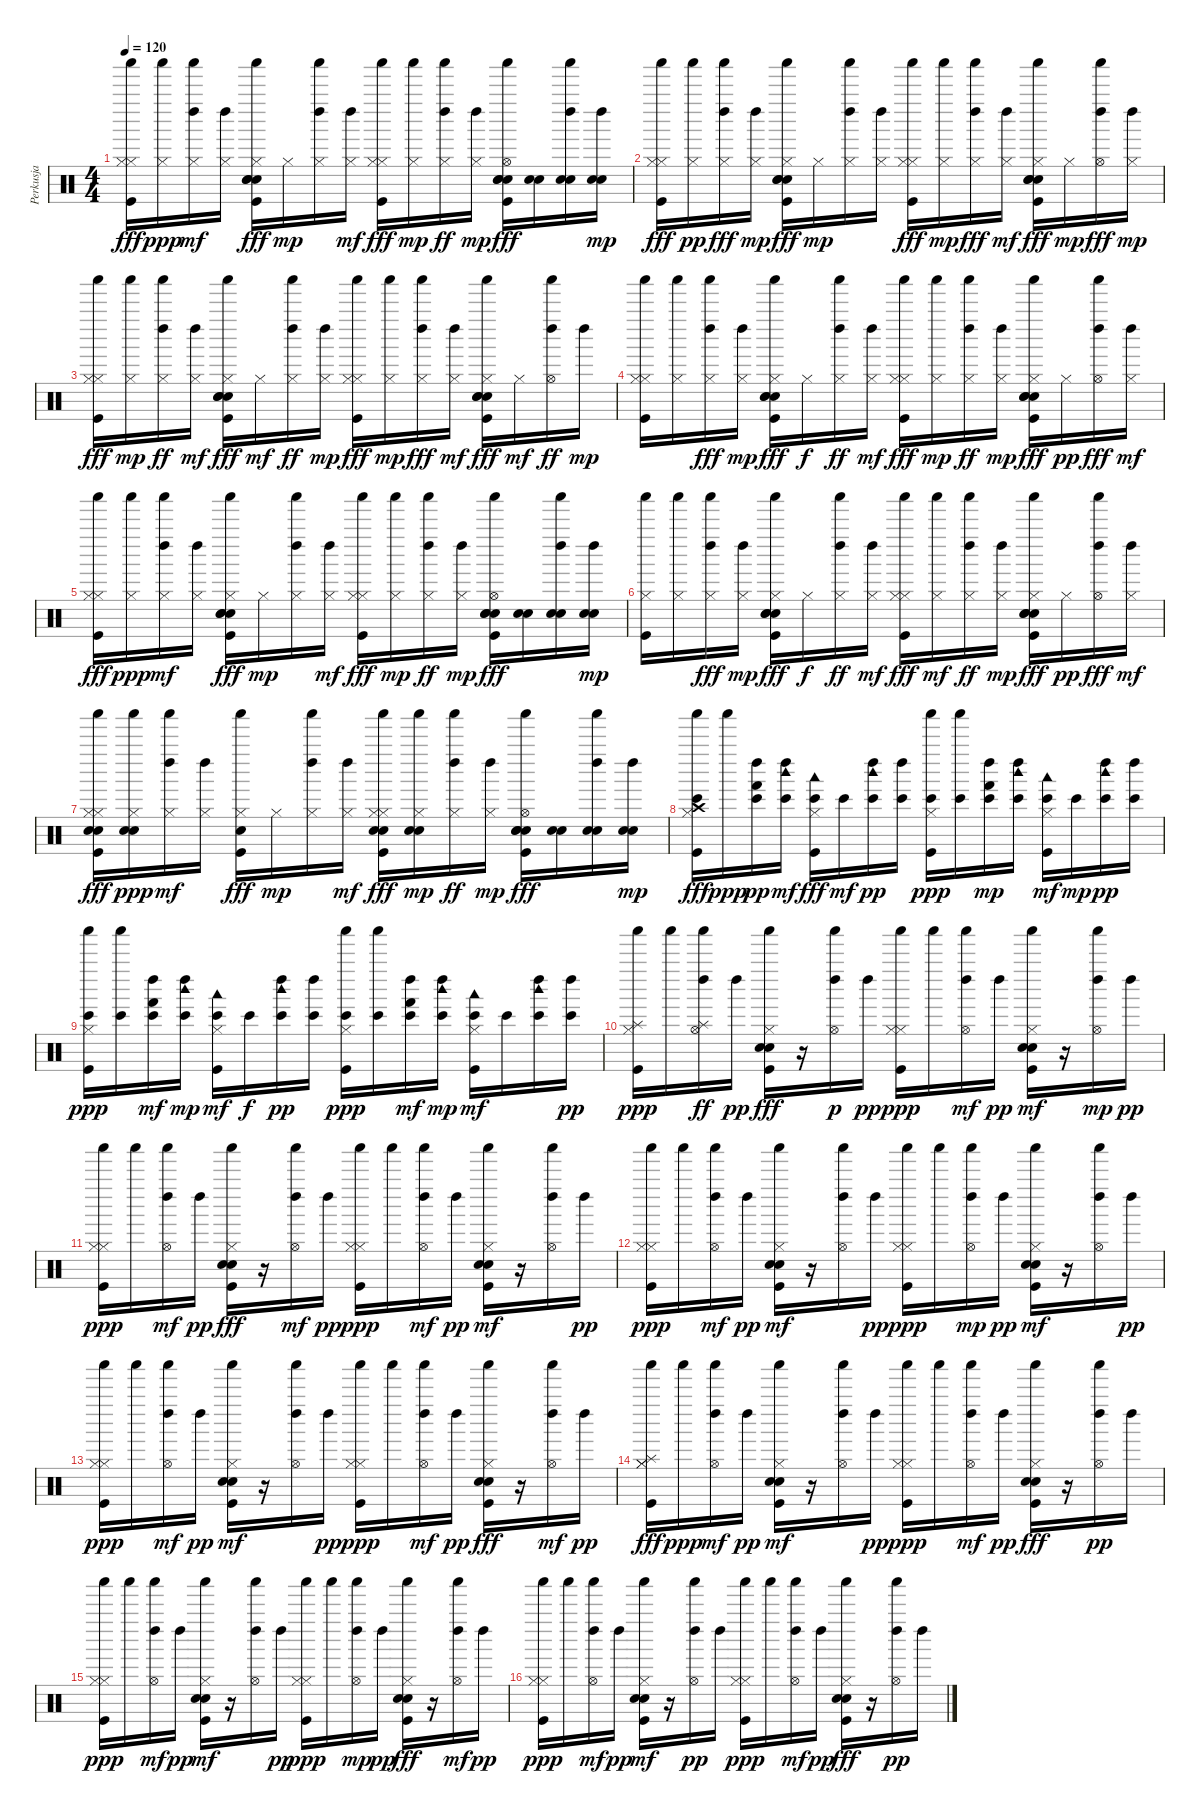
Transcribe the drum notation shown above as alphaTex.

\track ("Perkusja" "Perkusja") {instrument percussion}
\staff {score}
\articulation defaults
\ts (4 4)
\tempo 120
\clef neutral
\ks c
("Hi-Hat (closed)" "Kick (hit)" "Shaker (hit)" "Hi-Hat (closed)").16{dy fff} ("Shaker (hit)" "Hi-Hat (closed)").16{dy ppp} ("Left Maraca (hit)" "Shaker (hit)" "Hi-Hat (closed)").16{dy mf} ("Left Maraca (hit)" "Hi-Hat (closed)").16 ("Kick (hit)" "Snare (hit) 2" "Hand Clap (hit)" "Electric Snare (hit)" "Shaker (hit)" "Hi-Hat (closed)").16{dy fff} "Hi-Hat (closed)".16{dy mp} ("Left Maraca (hit)" "Shaker (hit)" "Hi-Hat (closed)").16 ("Left Maraca (hit)" "Hi-Hat (closed)").16{dy mf} ("Hi-Hat (closed)" "Kick (hit)" "Shaker (hit)" "Hi-Hat (closed)").16{dy fff} ("Hi-Hat (closed)" "Shaker (hit)").16{dy mp} ("Left Maraca (hit)" "Shaker (hit)" "Hi-Hat (closed)").16{dy ff} ("Hi-Hat (closed)" "Left Maraca (hit)").16{dy mp} ("Kick (hit)" "Snare (hit) 2" "Electric Snare (hit)" "Shaker (hit)" "Hand Clap (hit)" "Hi-Hat (open)").16{dy fff} ("Snare (hit) 2" "Electric Snare (hit)").16 ("Snare (hit) 2" "Electric Snare (hit)" "Left Maraca (hit)" "Shaker (hit)").16 ("Snare (hit) 2" "Electric Snare (hit)" "Left Maraca (hit)").16{dy mp} |
("Hi-Hat (closed)" "Kick (hit)" "Shaker (hit)" "Hi-Hat (closed)").16{dy fff} ("Shaker (hit)" "Hi-Hat (closed)").16{dy pp} ("Hi-Hat (closed)" "Left Maraca (hit)" "Shaker (hit)").16{dy fff} ("Hi-Hat (closed)" "Left Maraca (hit)").16{dy mp} ("Hi-Hat (closed)" "Kick (hit)" "Snare (hit) 2" "Electric Snare (hit)" "Shaker (hit)" "Hand Clap (hit)").16{dy fff} "Hi-Hat (closed)".16{dy mp} ("Hi-Hat (closed)" "Left Maraca (hit)" "Shaker (hit)").16 ("Left Maraca (hit)" "Hi-Hat (closed)").16 ("Hi-Hat (closed)" "Kick (hit)" "Shaker (hit)" "Hi-Hat (closed)").16{dy fff} ("Shaker (hit)" "Hi-Hat (closed)").16{dy mp} ("Left Maraca (hit)" "Shaker (hit)" "Hi-Hat (closed)").16{dy fff} ("Left Maraca (hit)" "Hi-Hat (closed)").16{dy mf} ("Kick (hit)" "Snare (hit) 2" "Hand Clap (hit)" "Electric Snare (hit)" "Shaker (hit)" "Hi-Hat (closed)").16{dy fff} "Hi-Hat (closed)".16{dy mp} ("Left Maraca (hit)" "Shaker (hit)" "Hi-Hat (open)").16{dy fff} ("Left Maraca (hit)" "Hi-Hat (closed)").16{dy mp} |
("Hi-Hat (closed)" "Kick (hit)" "Shaker (hit)" "Hi-Hat (closed)").16{dy fff} ("Shaker (hit)" "Hi-Hat (closed)").16{dy mp} ("Hi-Hat (closed)" "Left Maraca (hit)" "Shaker (hit)").16{dy ff} ("Left Maraca (hit)" "Hi-Hat (closed)").16{dy mf} ("Kick (hit)" "Snare (hit) 2" "Electric Snare (hit)" "Shaker (hit)" "Hand Clap (hit)" "Hi-Hat (closed)").16{dy fff} "Hi-Hat (closed)".16{dy mf} ("Hi-Hat (closed)" "Left Maraca (hit)" "Shaker (hit)").16{dy ff} ("Hi-Hat (closed)" "Left Maraca (hit)").16{dy mp} ("Hi-Hat (closed)" "Kick (hit)" "Shaker (hit)" "Hi-Hat (closed)").16{dy fff} ("Hi-Hat (closed)" "Shaker (hit)").16{dy mp} ("Hi-Hat (closed)" "Left Maraca (hit)" "Shaker (hit)").16{dy fff} ("Left Maraca (hit)" "Hi-Hat (closed)").16{dy mf} ("Kick (hit)" "Snare (hit) 2" "Hand Clap (hit)" "Electric Snare (hit)" "Hi-Hat (closed)" "Shaker (hit)").16{dy fff} "Hi-Hat (closed)".16{dy mf} ("Hi-Hat (open)" "Left Maraca (hit)" "Shaker (hit)").16{dy ff} "Left Maraca (hit)".16{dy mp} |
("Hi-Hat (closed)" "Hi-Hat (closed)" "Kick (hit)" "Shaker (hit)").16 ("Hi-Hat (closed)" "Shaker (hit)").16 ("Left Maraca (hit)" "Shaker (hit)" "Hi-Hat (closed)").16{dy fff} ("Hi-Hat (closed)" "Left Maraca (hit)").16{dy mp} ("Snare (hit) 2" "Electric Snare (hit)" "Kick (hit)" "Hand Clap (hit)" "Shaker (hit)" "Hi-Hat (closed)").16{dy fff} "Hi-Hat (closed)".16{dy f} ("Left Maraca (hit)" "Shaker (hit)" "Hi-Hat (closed)").16{dy ff} ("Left Maraca (hit)" "Hi-Hat (closed)").16{dy mf} ("Hi-Hat (closed)" "Kick (hit)" "Shaker (hit)" "Hi-Hat (closed)").16{dy fff} ("Shaker (hit)" "Hi-Hat (closed)").16{dy mp} ("Left Maraca (hit)" "Shaker (hit)" "Hi-Hat (closed)").16{dy ff} ("Left Maraca (hit)" "Hi-Hat (closed)").16{dy mp} ("Kick (hit)" "Snare (hit) 2" "Hand Clap (hit)" "Electric Snare (hit)" "Shaker (hit)" "Hi-Hat (closed)").16{dy fff} "Hi-Hat (closed)".16{dy pp} ("Left Maraca (hit)" "Shaker (hit)" "Hi-Hat (open)").16{dy fff} ("Left Maraca (hit)" "Hi-Hat (closed)").16{dy mf} |
("Hi-Hat (closed)" "Kick (hit)" "Shaker (hit)" "Hi-Hat (closed)").16{dy fff} ("Shaker (hit)" "Hi-Hat (closed)").16{dy ppp} ("Left Maraca (hit)" "Shaker (hit)" "Hi-Hat (closed)").16{dy mf} ("Left Maraca (hit)" "Hi-Hat (closed)").16 ("Kick (hit)" "Snare (hit) 2" "Hand Clap (hit)" "Electric Snare (hit)" "Shaker (hit)" "Hi-Hat (closed)").16{dy fff} "Hi-Hat (closed)".16{dy mp} ("Left Maraca (hit)" "Shaker (hit)" "Hi-Hat (closed)").16 ("Left Maraca (hit)" "Hi-Hat (closed)").16{dy mf} ("Hi-Hat (closed)" "Kick (hit)" "Shaker (hit)" "Hi-Hat (closed)").16{dy fff} ("Hi-Hat (closed)" "Shaker (hit)").16{dy mp} ("Left Maraca (hit)" "Shaker (hit)" "Hi-Hat (closed)").16{dy ff} ("Hi-Hat (closed)" "Left Maraca (hit)").16{dy mp} ("Kick (hit)" "Snare (hit) 2" "Electric Snare (hit)" "Shaker (hit)" "Hand Clap (hit)" "Hi-Hat (open)").16{dy fff} ("Snare (hit) 2" "Electric Snare (hit)").16 ("Snare (hit) 2" "Electric Snare (hit)" "Left Maraca (hit)" "Shaker (hit)").16 ("Snare (hit) 2" "Electric Snare (hit)" "Left Maraca (hit)").16{dy mp} |
("Hi-Hat (closed)" "Kick (hit)" "Shaker (hit)").16 ("Hi-Hat (closed)" "Shaker (hit)").16 ("Left Maraca (hit)" "Shaker (hit)" "Hi-Hat (closed)").16{dy fff} ("Hi-Hat (closed)" "Left Maraca (hit)").16{dy mp} ("Snare (hit) 2" "Electric Snare (hit)" "Kick (hit)" "Hand Clap (hit)" "Shaker (hit)" "Hi-Hat (closed)").16{dy fff} "Hi-Hat (closed)".16{dy f} ("Left Maraca (hit)" "Shaker (hit)" "Hi-Hat (closed)").16{dy ff} ("Left Maraca (hit)" "Hi-Hat (closed)").16{dy mf} ("Hi-Hat (closed)" "Kick (hit)" "Shaker (hit)" "Hi-Hat (closed)").16{dy fff} ("Shaker (hit)" "Hi-Hat (closed)").16{dy mf} ("Left Maraca (hit)" "Shaker (hit)" "Hi-Hat (closed)").16{dy ff} ("Left Maraca (hit)" "Hi-Hat (closed)").16{dy mp} ("Kick (hit)" "Snare (hit) 2" "Hand Clap (hit)" "Electric Snare (hit)" "Shaker (hit)" "Hi-Hat (closed)").16{dy fff} "Hi-Hat (closed)".16{dy pp} ("Left Maraca (hit)" "Shaker (hit)" "Hi-Hat (open)").16{dy fff} ("Left Maraca (hit)" "Hi-Hat (closed)").16{dy mf} |
("Hi-Hat (closed)" "Kick (hit)" "Snare (hit) 2" "Electric Snare (hit)" "Shaker (hit)" "Hi-Hat (closed)").16{dy fff} ("Snare (hit) 2" "Electric Snare (hit)" "Shaker (hit)" "Hi-Hat (closed)").16{dy ppp} ("Left Maraca (hit)" "Shaker (hit)" "Hi-Hat (closed)").16{dy mf} ("Left Maraca (hit)" "Hi-Hat (closed)").16 ("Kick (hit)" "Hand Clap (hit)" "Shaker (hit)" "Hi-Hat (closed)").16{dy fff} "Hi-Hat (closed)".16{dy mp} ("Left Maraca (hit)" "Shaker (hit)" "Hi-Hat (closed)").16 ("Left Maraca (hit)" "Hi-Hat (closed)").16{dy mf} ("Hi-Hat (closed)" "Kick (hit)" "Snare (hit) 2" "Electric Snare (hit)" "Shaker (hit)" "Hi-Hat (closed)").16{dy fff} ("Hi-Hat (closed)" "Snare (hit) 2" "Electric Snare (hit)" "Shaker (hit)").16{dy mp} ("Left Maraca (hit)" "Shaker (hit)" "Hi-Hat (closed)").16{dy ff} ("Hi-Hat (closed)" "Left Maraca (hit)").16{dy mp} ("Kick (hit)" "Snare (hit) 2" "Electric Snare (hit)" "Shaker (hit)" "Hand Clap (hit)" "Hi-Hat (open)").16{dy fff} ("Snare (hit) 2" "Electric Snare (hit)").16 ("Snare (hit) 2" "Electric Snare (hit)" "Left Maraca (hit)" "Shaker (hit)").16 ("Snare (hit) 2" "Electric Snare (hit)" "Left Maraca (hit)").16{dy mp} |
("Hi-Hat (closed)" "Bongo High (hit)" "Kick (hit)" "Shaker (hit)" "Crash high (hit)").16{dy fff} "Shaker (hit)".16{dy ppp} ("Bongo High (hit)" "Hand (hit)" "Left Maraca (hit)").16{dy pp} ("Bongo High (hit)" "Left Maraca (hit)" "Woodblock high (hit)").16{dy mf} ("Hi-Hat (closed)" "Bongo High (hit)" "Kick (hit)" "Woodblock low (hit)").16{dy fff} "Bongo High (hit)".16{dy mf} ("Bongo High (hit)" "Left Maraca (hit)" "Woodblock high (hit)").16{dy pp} ("Bongo High (hit)" "Left Maraca (hit)").16 ("Hi-Hat (closed)" "Bongo High (hit)" "Kick (hit)" "Shaker (hit)").16{dy ppp} ("Bongo High (hit)" "Shaker (hit)").16 ("Bongo High (hit)" "Left Maraca (hit)" "Hand (hit)").16{dy mp} ("Bongo High (hit)" "Left Maraca (hit)" "Woodblock high (hit)").16 ("Hi-Hat (closed)" "Bongo High (hit)" "Kick (hit)" "Woodblock low (hit)").16{dy mf} "Bongo High (hit)".16{dy mp} ("Bongo High (hit)" "Left Maraca (hit)" "Woodblock high (hit)").16{dy pp} ("Bongo High (hit)" "Left Maraca (hit)").16 |
("Hi-Hat (closed)" "Bongo High (hit)" "Kick (hit)" "Shaker (hit)").16{dy ppp} ("Bongo High (hit)" "Shaker (hit)").16 ("Bongo High (hit)" "Left Maraca (hit)" "Hand (hit)").16{dy mf} ("Bongo High (hit)" "Left Maraca (hit)" "Woodblock high (hit)").16{dy mp} ("Hi-Hat (closed)" "Bongo High (hit)" "Kick (hit)" "Woodblock low (hit)").16{dy mf} "Bongo High (hit)".16{dy f} ("Bongo High (hit)" "Left Maraca (hit)" "Woodblock high (hit)").16{dy pp} ("Bongo High (hit)" "Left Maraca (hit)").16 ("Hi-Hat (closed)" "Bongo High (hit)" "Kick (hit)" "Shaker (hit)").16{dy ppp} ("Bongo High (hit)" "Shaker (hit)").16 ("Bongo High (hit)" "Left Maraca (hit)" "Hand (hit)").16{dy mf} ("Bongo High (hit)" "Left Maraca (hit)" "Woodblock high (hit)").16{dy mp} ("Hi-Hat (closed)" "Bongo High (hit)" "Kick (hit)" "Woodblock low (hit)").16{dy mf} "Bongo High (hit)".16 ("Bongo High (hit)" "Left Maraca (hit)" "Woodblock high (hit)").16 ("Bongo High (hit)" "Left Maraca (hit)").16{dy pp} |
("Hi-Hat (closed)" "Kick (hit)" "Shaker (hit)" "Splash (hit)").16{dy ppp} "Shaker (hit)".16 ("Hi-Hat (open)" "Left Maraca (hit)" "Shaker (hit)" "Splash (hit)").16{dy ff} "Left Maraca (hit)".16{dy pp} ("Kick (hit)" "Hand Clap (hit)" "Hi-Hat (closed)" "Shaker (hit)" "Electric Snare (hit)").16{dy fff} r.16 ("Hi-Hat (open)" "Left Maraca (hit)" "Shaker (hit)").16{dy p} "Left Maraca (hit)".16{dy pp} ("Hi-Hat (closed)" "Kick (hit)" "Hi-Hat (closed)" "Shaker (hit)").16{dy ppp} "Shaker (hit)".16 ("Hi-Hat (open)" "Left Maraca (hit)" "Shaker (hit)").16{dy mf} "Left Maraca (hit)".16{dy pp} ("Kick (hit)" "Hand Clap (hit)" "Electric Snare (hit)" "Hi-Hat (closed)" "Shaker (hit)").16{dy mf} r.16 ("Hi-Hat (open)" "Left Maraca (hit)" "Shaker (hit)").16{dy mp} "Left Maraca (hit)".16{dy pp} |
("Hi-Hat (closed)" "Kick (hit)" "Hi-Hat (closed)" "Shaker (hit)").16{dy ppp} "Shaker (hit)".16 ("Hi-Hat (open)" "Left Maraca (hit)" "Shaker (hit)").16{dy mf} "Left Maraca (hit)".16{dy pp} ("Kick (hit)" "Hand Clap (hit)" "Hi-Hat (closed)" "Shaker (hit)" "Electric Snare (hit)").16{dy fff} r.16 ("Hi-Hat (open)" "Left Maraca (hit)" "Shaker (hit)").16{dy mf} "Left Maraca (hit)".16{dy pp} ("Hi-Hat (closed)" "Kick (hit)" "Hi-Hat (closed)" "Shaker (hit)").16{dy ppp} "Shaker (hit)".16 ("Hi-Hat (open)" "Left Maraca (hit)" "Shaker (hit)").16{dy mf} "Left Maraca (hit)".16{dy pp} ("Kick (hit)" "Hand Clap (hit)" "Electric Snare (hit)" "Hi-Hat (closed)" "Shaker (hit)").16{dy mf} r.16 ("Hi-Hat (open)" "Left Maraca (hit)" "Shaker (hit)").16 "Left Maraca (hit)".16{dy pp} |
("Hi-Hat (closed)" "Kick (hit)" "Hi-Hat (closed)" "Shaker (hit)").16{dy ppp} "Shaker (hit)".16 ("Hi-Hat (open)" "Left Maraca (hit)" "Shaker (hit)").16{dy mf} "Left Maraca (hit)".16{dy pp} ("Hand Clap (hit)" "Kick (hit)" "Electric Snare (hit)" "Hi-Hat (closed)" "Shaker (hit)").16{dy mf} r.16 ("Hi-Hat (open)" "Left Maraca (hit)" "Shaker (hit)").16 "Left Maraca (hit)".16{dy pp} ("Hi-Hat (closed)" "Kick (hit)" "Hi-Hat (closed)" "Shaker (hit)").16{dy ppp} "Shaker (hit)".16 ("Hi-Hat (open)" "Left Maraca (hit)" "Shaker (hit)").16{dy mp} "Left Maraca (hit)".16{dy pp} ("Kick (hit)" "Hand Clap (hit)" "Electric Snare (hit)" "Hi-Hat (closed)" "Shaker (hit)").16{dy mf} r.16 ("Hi-Hat (open)" "Left Maraca (hit)" "Shaker (hit)").16 "Left Maraca (hit)".16{dy pp} |
("Hi-Hat (closed)" "Kick (hit)" "Hi-Hat (closed)" "Shaker (hit)").16{dy ppp} "Shaker (hit)".16 ("Hi-Hat (open)" "Left Maraca (hit)" "Shaker (hit)").16{dy mf} "Left Maraca (hit)".16{dy pp} ("Kick (hit)" "Hand Clap (hit)" "Electric Snare (hit)" "Hi-Hat (closed)" "Shaker (hit)").16{dy mf} r.16 ("Hi-Hat (open)" "Left Maraca (hit)" "Shaker (hit)").16 "Left Maraca (hit)".16{dy pp} ("Hi-Hat (closed)" "Kick (hit)" "Hi-Hat (closed)" "Shaker (hit)").16{dy ppp} "Shaker (hit)".16 ("Hi-Hat (open)" "Left Maraca (hit)" "Shaker (hit)").16{dy mf} "Left Maraca (hit)".16{dy pp} ("Kick (hit)" "Hand Clap (hit)" "Hi-Hat (closed)" "Shaker (hit)" "Electric Snare (hit)").16{dy fff} r.16 ("Hi-Hat (open)" "Left Maraca (hit)" "Shaker (hit)").16{dy mf} "Left Maraca (hit)".16{dy pp} |
("Hi-Hat (closed)" "Kick (hit)" "Hi-Hat (closed)" "Shaker (hit)" "Splash (hit)").16{dy fff} "Shaker (hit)".16{dy ppp} ("Hi-Hat (open)" "Left Maraca (hit)" "Shaker (hit)").16{dy mf} "Left Maraca (hit)".16{dy pp} ("Kick (hit)" "Hand Clap (hit)" "Electric Snare (hit)" "Hi-Hat (closed)" "Shaker (hit)").16{dy mf} r.16 ("Hi-Hat (open)" "Left Maraca (hit)" "Shaker (hit)").16 "Left Maraca (hit)".16{dy pp} ("Hi-Hat (closed)" "Kick (hit)" "Hi-Hat (closed)" "Shaker (hit)").16{dy ppp} "Shaker (hit)".16 ("Hi-Hat (open)" "Left Maraca (hit)" "Shaker (hit)").16{dy mf} "Left Maraca (hit)".16{dy pp} ("Kick (hit)" "Hand Clap (hit)" "Hi-Hat (closed)" "Shaker (hit)" "Electric Snare (hit)").16{dy fff} r.16 ("Hi-Hat (open)" "Left Maraca (hit)" "Shaker (hit)").16{dy pp} "Left Maraca (hit)".16 |
("Hi-Hat (closed)" "Kick (hit)" "Hi-Hat (closed)" "Shaker (hit)").16{dy ppp} "Shaker (hit)".16 ("Hi-Hat (open)" "Left Maraca (hit)" "Shaker (hit)").16{dy mf} "Left Maraca (hit)".16{dy pp} ("Kick (hit)" "Hand Clap (hit)" "Electric Snare (hit)" "Hi-Hat (closed)" "Shaker (hit)").16{dy mf} r.16 ("Hi-Hat (open)" "Left Maraca (hit)" "Shaker (hit)").16 "Left Maraca (hit)".16{dy pp} ("Hi-Hat (closed)" "Kick (hit)" "Hi-Hat (closed)" "Shaker (hit)").16{dy ppp} "Shaker (hit)".16 ("Hi-Hat (open)" "Left Maraca (hit)" "Shaker (hit)").16{dy mp} "Left Maraca (hit)".16{dy pp} ("Kick (hit)" "Hand Clap (hit)" "Hi-Hat (closed)" "Shaker (hit)" "Electric Snare (hit)").16{dy fff} r.16 ("Hi-Hat (open)" "Left Maraca (hit)" "Shaker (hit)").16{dy mf} "Left Maraca (hit)".16{dy pp} |
("Hi-Hat (closed)" "Kick (hit)" "Hi-Hat (closed)" "Shaker (hit)").16{dy ppp} "Shaker (hit)".16 ("Hi-Hat (open)" "Left Maraca (hit)" "Shaker (hit)").16{dy mf} "Left Maraca (hit)".16{dy pp} ("Hand Clap (hit)" "Kick (hit)" "Electric Snare (hit)" "Hi-Hat (closed)" "Shaker (hit)").16{dy mf} r.16 ("Hi-Hat (open)" "Left Maraca (hit)" "Shaker (hit)").16{dy pp} "Left Maraca (hit)".16 ("Hi-Hat (closed)" "Kick (hit)" "Hi-Hat (closed)" "Shaker (hit)").16{dy ppp} "Shaker (hit)".16 ("Hi-Hat (open)" "Left Maraca (hit)" "Shaker (hit)").16{dy mf} "Left Maraca (hit)".16{dy pp} ("Kick (hit)" "Hand Clap (hit)" "Hi-Hat (closed)" "Shaker (hit)" "Electric Snare (hit)").16{dy fff} r.16 ("Hi-Hat (open)" "Left Maraca (hit)" "Shaker (hit)").16{dy pp} "Left Maraca (hit)".16
